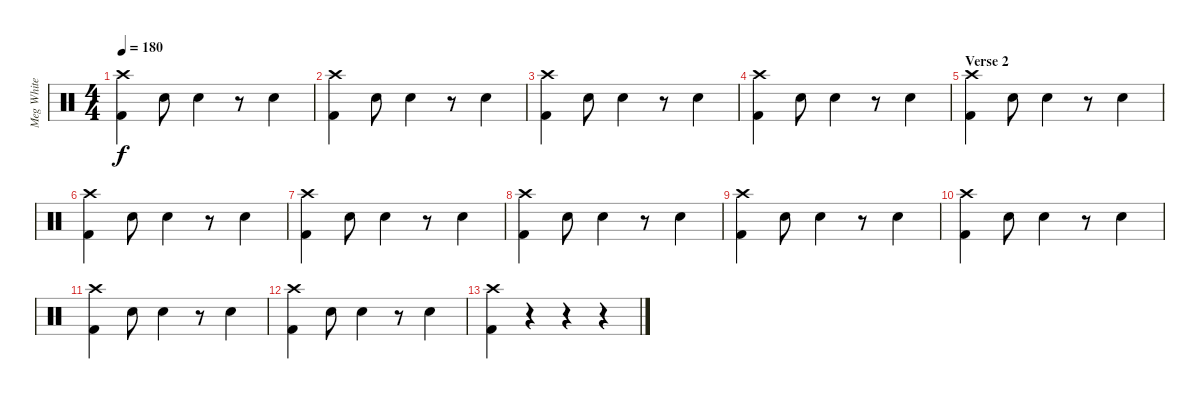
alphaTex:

\track ("Meg White" "Meg White") {instrument percussion}
\staff {score}
\articulation defaults
\ts (4 4)
\tempo 180
\clef neutral
\ks c
("Kick (hit) 2" "Crash high (hit)").4{dy f} "Snare (hit) 2".8 "Snare (hit) 2".4 r.8 "Snare (hit) 2".4 |
("Kick (hit) 2" "Crash high (hit)").4 "Snare (hit) 2".8 "Snare (hit) 2".4 r.8 "Snare (hit) 2".4 |
("Kick (hit) 2" "Crash high (hit)").4 "Snare (hit) 2".8 "Snare (hit) 2".4 r.8 "Snare (hit) 2".4 |
("Kick (hit) 2" "Crash high (hit)").4 "Snare (hit) 2".8 "Snare (hit) 2".4 r.8 "Snare (hit) 2".4 |
\section ("" "Verse 2")
("Kick (hit) 2" "Crash high (hit)").4 "Snare (hit) 2".8 "Snare (hit) 2".4 r.8 "Snare (hit) 2".4 |
("Kick (hit) 2" "Crash high (hit)").4 "Snare (hit) 2".8 "Snare (hit) 2".4 r.8 "Snare (hit) 2".4 |
("Kick (hit) 2" "Crash high (hit)").4 "Snare (hit) 2".8 "Snare (hit) 2".4 r.8 "Snare (hit) 2".4 |
("Kick (hit) 2" "Crash high (hit)").4 "Snare (hit) 2".8 "Snare (hit) 2".4 r.8 "Snare (hit) 2".4 |
("Kick (hit) 2" "Crash high (hit)").4 "Snare (hit) 2".8 "Snare (hit) 2".4 r.8 "Snare (hit) 2".4 |
("Kick (hit) 2" "Crash high (hit)").4 "Snare (hit) 2".8 "Snare (hit) 2".4 r.8 "Snare (hit) 2".4 |
("Kick (hit) 2" "Crash high (hit)").4 "Snare (hit) 2".8 "Snare (hit) 2".4 r.8 "Snare (hit) 2".4 |
("Kick (hit) 2" "Crash high (hit)").4 "Snare (hit) 2".8 "Snare (hit) 2".4 r.8 "Snare (hit) 2".4 |
("Kick (hit) 2" "Crash high (hit)").4 r.4 r.4 r.4
